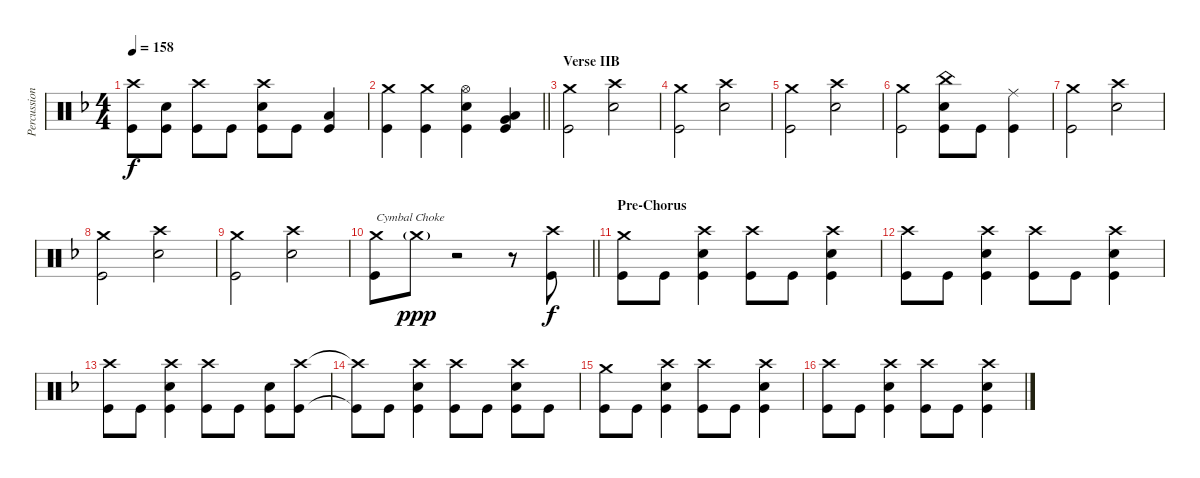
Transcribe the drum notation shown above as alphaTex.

\track ("Percussion" "Percussion") {instrument percussion}
\staff {score}
\articulation defaults
\ts (4 4)
\tempo 158
\clef neutral
\ks f
("Crash high (hit)" "Kick (hit)").8{dy f} ("Electric Snare (hit)" "Kick (hit)").8 ("Crash high (hit)" "Kick (hit)").8 "Kick (hit)".8 ("Crash high (hit)" "Electric Snare (hit)" "Kick (hit)").8 "Kick (hit)".8 ("Low Floor Tom (hit)" "Kick (hit)").4 |
\barLineRight lightlight
("Crash medium (hit)" "Kick (hit)").4 ("Crash medium (hit)" "Kick (hit)").4 ("Hi-Hat (open)" "Electric Snare (hit)" "Kick (hit)").4 ("Very Low Tom (hit)" "Low Floor Tom (hit)" "Kick (hit)").4 |
\section ("" "Verse IIB")
("Crash medium (hit)" "Kick (hit)").2 ("Crash high (hit)" "Electric Snare (hit)").2 |
("Crash medium (hit)" "Kick (hit)").2 ("Crash high (hit)" "Electric Snare (hit)").2 |
("Crash medium (hit)" "Kick (hit)").2 ("Crash high (hit)" "Electric Snare (hit)").2 |
("Crash medium (hit)" "Kick (hit)").2 ("China (hit)" "Electric Snare (hit)" "Kick (hit)").8 "Kick (hit)".8 ("Ride (middle)" "Kick (hit)").4 |
("Crash medium (hit)" "Kick (hit)").2 ("Crash high (hit)" "Electric Snare (hit)").2 |
("Crash medium (hit)" "Kick (hit)").2 ("Crash high (hit)" "Electric Snare (hit)").2 |
("Crash medium (hit)" "Kick (hit)").2 ("Crash high (hit)" "Electric Snare (hit)").2 |
\barLineRight lightlight
("Crash medium (hit)" "Kick (hit)").8{txt "Cymbal Choke"} "Crash medium (hit)"{g}.8{dy ppp volume 0} r.2 r.8 ("Crash high (hit)" "Kick (hit)").8{dy f volume 13} |
\section ("" "Pre-Chorus")
("Crash medium (hit)" "Kick (hit)").8 "Kick (hit)".8 ("Crash high (hit)" "Electric Snare (hit)" "Kick (hit)").4 ("Crash high (hit)" "Kick (hit)").8 "Kick (hit)".8 ("Crash high (hit)" "Electric Snare (hit)" "Kick (hit)").4 |
("Crash high (hit)" "Kick (hit)").8 "Kick (hit)".8 ("Crash high (hit)" "Electric Snare (hit)" "Kick (hit)").4 ("Crash high (hit)" "Kick (hit)").8 "Kick (hit)".8 ("Crash high (hit)" "Electric Snare (hit)" "Kick (hit)").4 |
("Crash high (hit)" "Kick (hit)").8 "Kick (hit)".8 ("Crash high (hit)" "Electric Snare (hit)" "Kick (hit)").4 ("Crash high (hit)" "Kick (hit)").8 "Kick (hit)".8 ("Electric Snare (hit)" "Kick (hit)").8 ("Crash high (hit)" "Kick (hit)").8 |
("Crash high (hit)"{t} "Kick (hit)"{t}).8 "Kick (hit)".8 ("Crash high (hit)" "Electric Snare (hit)" "Kick (hit)").4 ("Crash high (hit)" "Kick (hit)").8 "Kick (hit)".8 ("Crash high (hit)" "Electric Snare (hit)" "Kick (hit)").8 "Kick (hit)".8 |
("Crash medium (hit)" "Kick (hit)").8 "Kick (hit)".8 ("Crash high (hit)" "Electric Snare (hit)" "Kick (hit)").4 ("Crash high (hit)" "Kick (hit)").8 "Kick (hit)".8 ("Crash high (hit)" "Electric Snare (hit)" "Kick (hit)").4 |
("Crash high (hit)" "Kick (hit)").8 "Kick (hit)".8 ("Crash high (hit)" "Electric Snare (hit)" "Kick (hit)").4 ("Crash high (hit)" "Kick (hit)").8 "Kick (hit)".8 ("Crash high (hit)" "Electric Snare (hit)" "Kick (hit)").4
